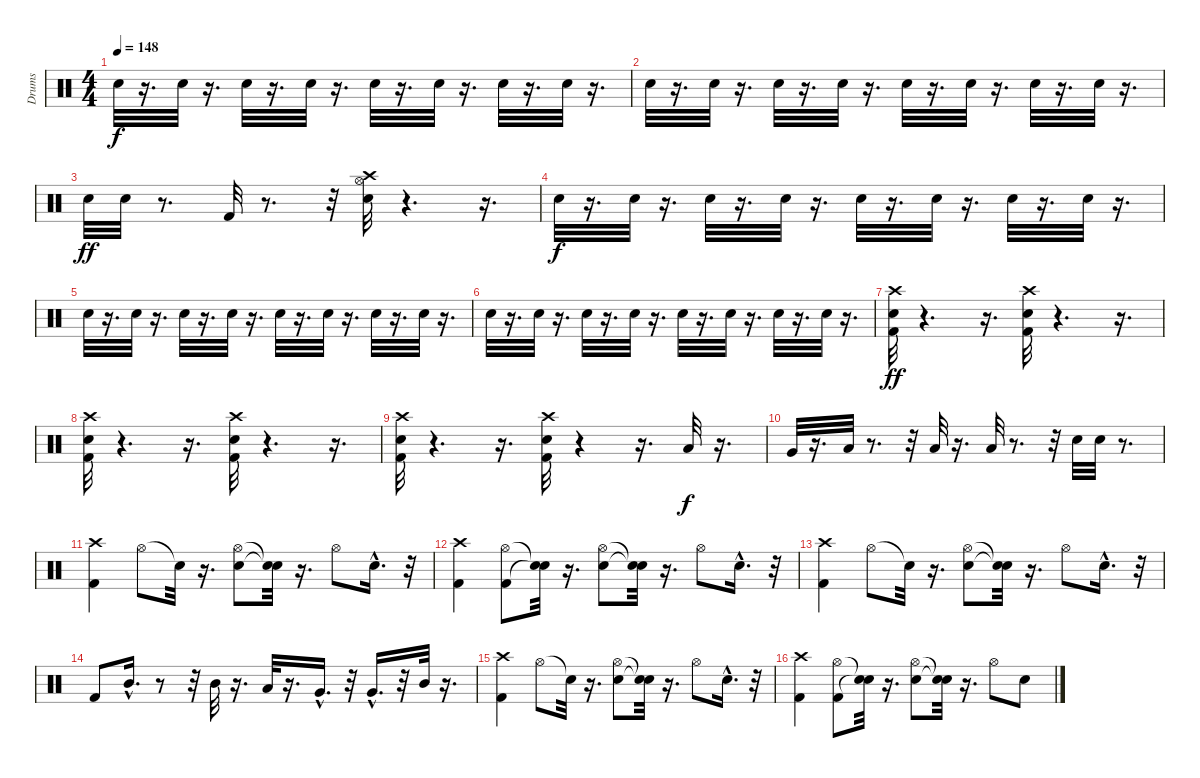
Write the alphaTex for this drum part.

\track ("Drums" "Drums") {instrument percussion}
\staff {score}
\articulation defaults
\ts (4 4)
\tempo 148
\clef neutral
\ks c "Electric Snare (hit)".32{dy f volume 9}
r.16{d} "Electric Snare (hit)".32{volume 9} r.16{d} "Electric Snare (hit)".32{volume 10} r.16{d} "Electric Snare (hit)".32{volume 10} r.16{d} "Electric Snare (hit)".32{volume 10} r.16{d} "Electric Snare (hit)".32{volume 10} r.16{d} "Electric Snare (hit)".32{volume 10} r.16{d} "Electric Snare (hit)".32{volume 11} r.16{d} |
"Electric Snare (hit)".32{volume 11} r.16{d} "Electric Snare (hit)".32{volume 11} r.16{d} "Electric Snare (hit)".32{volume 11} r.16{d} "Electric Snare (hit)".32{volume 11} r.16{d} "Electric Snare (hit)".32{volume 12} r.16{d} "Electric Snare (hit)".32{volume 12} r.16{d} "Electric Snare (hit)".32{volume 12} r.16{d} "Electric Snare (hit)".32{volume 12} r.16{d} |
"Electric Snare (hit)".32{dy ff volume 12} "Electric Snare (hit)".32 r.8{d} "Kick (hit) 2".32 r.8{d} r.32 ("Crash high (hit)" "Hi-Hat (open)" "Electric Snare (hit)").32 r.4{d} r.16{d} |
"Electric Snare (hit)".32{dy f volume 8} r.16{d} "Electric Snare (hit)".32{volume 8} r.16{d} "Electric Snare (hit)".32{volume 8} r.16{d} "Electric Snare (hit)".32{volume 8} r.16{d} "Electric Snare (hit)".32{volume 8} r.16{d} "Electric Snare (hit)".32{volume 8} r.16{d} "Electric Snare (hit)".32{volume 9} r.16{d} "Electric Snare (hit)".32{volume 9} r.16{d} |
"Electric Snare (hit)".32{volume 9} r.16{d} "Electric Snare (hit)".32{volume 9} r.16{d} "Electric Snare (hit)".32{volume 10} r.16{d} "Electric Snare (hit)".32{volume 10} r.16{d} "Electric Snare (hit)".32{volume 10} r.16{d} "Electric Snare (hit)".32{volume 10} r.16{d} "Electric Snare (hit)".32{volume 10} r.16{d} "Electric Snare (hit)".32{volume 11} r.16{d} |
"Electric Snare (hit)".32{volume 11} r.16{d} "Electric Snare (hit)".32{volume 11} r.16{d} "Electric Snare (hit)".32{volume 11} r.16{d} "Electric Snare (hit)".32{volume 11} r.16{d} "Electric Snare (hit)".32{volume 12} r.16{d} "Electric Snare (hit)".32{volume 12} r.16{d} "Electric Snare (hit)".32{volume 12} r.16{d} "Electric Snare (hit)".32{volume 12} r.16{d} |
("Crash high (hit)" "Kick (hit) 2" "Electric Snare (hit)").32{dy ff volume 12} r.4{d} r.16{d} ("Crash high (hit)" "Kick (hit) 2" "Electric Snare (hit)").32 r.4{d} r.16{d} |
("Crash high (hit)" "Kick (hit) 2" "Electric Snare (hit)").32 r.4{d} r.16{d} ("Crash high (hit)" "Kick (hit) 2" "Electric Snare (hit)").32 r.4{d} r.16{d} |
("Crash high (hit)" "Kick (hit) 2" "Electric Snare (hit)").32 r.4{d} r.16{d} ("Crash high (hit)" "Kick (hit) 2" "Electric Snare (hit)").32 r.4 r.16{d} "Low Tom (hit)".32{dy f} r.16{d} |
"Very Low Tom (hit)".32 r.16{d} "Low Floor Tom (hit)".32 r.8{d} r.32 "Low Tom (hit)".32 r.16{d} "Low Floor Tom (hit)".32 r.8{d} r.32 "Snare (hit) 2".32 "Snare (hit) 2".32 r.8{d} |
("Crash high (hit)" "Kick (hit) 2").4 "Hi-Hat (open)".8 "Snare (hit)"{t}.32 r.16{d} ("Hi-Hat (open)" "Snare (hit) 2").8 ("Snare (hit)"{t} "Snare (hit)"{t}).32 r.16{d} "Hi-Hat (open)".8 "Snare (hit) 2"{hac}.16{d} r.32 |
("Crash high (hit)" "Kick (hit) 2").4 ("Hi-Hat (open)" "Kick (hit) 2").8 ("Snare (hit)"{t} "Snare (hit)"{t}).32 r.16{d} ("Hi-Hat (open)" "Snare (hit) 2").8 ("Snare (hit)"{t} "Snare (hit)"{t}).32 r.16{d} "Hi-Hat (open)".8 "Snare (hit) 2"{hac}.16{d} r.32 |
("Crash high (hit)" "Kick (hit) 2").4 "Hi-Hat (open)".8 "Snare (hit)"{t}.32 r.16{d} ("Hi-Hat (open)" "Snare (hit) 2").8 ("Snare (hit)"{t} "Snare (hit)"{t}).32 r.16{d} "Hi-Hat (open)".8 "Snare (hit) 2"{hac}.16{d} r.32 |
"Kick (hit) 2".8 "Mid Tom (hit)"{hac}.16{d} r.8 r.32 "Mid Tom (hit)".32 r.16{d} "Low Tom (hit)".32 r.16{d} "Very Low Tom (hit)"{hac}.16{d} r.32 "Very Low Tom (hit)"{hac}.16{d} r.32 "Mid Tom (hit)".32 r.16{d} |
("Crash high (hit)" "Kick (hit) 2").4 "Hi-Hat (open)".8 "Snare (hit)"{t}.32 r.16{d} ("Hi-Hat (open)" "Snare (hit) 2").8 ("Snare (hit)"{t} "Snare (hit)"{t}).32 r.16{d} "Hi-Hat (open)".8 "Snare (hit) 2"{hac}.16{d} r.32 |
("Kick (hit) 2" "Crash high (hit)").4 ("Hi-Hat (open)" "Kick (hit) 2").8 ("Snare (hit)"{t} "Snare (hit)"{t}).32 r.16{d} ("Hi-Hat (open)" "Snare (hit) 2").8 ("Snare (hit)"{t} "Snare (hit)"{t}).32 r.16{d} "Hi-Hat (open)".8 "Snare (hit) 2".8
